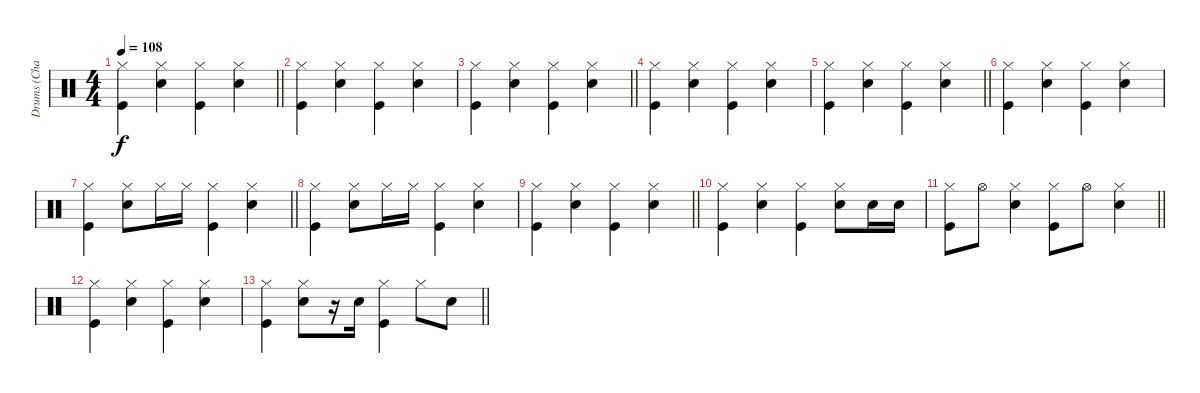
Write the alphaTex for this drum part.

\track ("Drums (Chad Smith)" "Drums (Cha") {instrument percussion}
\staff {score}
\articulation defaults
\ts (4 4)
\tempo 108
\clef neutral
\barLineRight lightlight
\ks c
("Hi-Hat (closed)" "Kick (hit)").4{dy f} ("Hi-Hat (closed)" "Snare (hit) 2").4 ("Hi-Hat (closed)" "Kick (hit)").4 ("Hi-Hat (closed)" "Snare (hit) 2").4 |
("Hi-Hat (closed)" "Kick (hit)").4 ("Hi-Hat (closed)" "Snare (hit) 2").4 ("Hi-Hat (closed)" "Kick (hit)").4 ("Hi-Hat (closed)" "Snare (hit) 2").4 |
\barLineRight lightlight
("Hi-Hat (closed)" "Kick (hit)").4 ("Hi-Hat (closed)" "Snare (hit) 2").4 ("Hi-Hat (closed)" "Kick (hit)").4 ("Hi-Hat (closed)" "Snare (hit) 2").4 |
("Hi-Hat (closed)" "Kick (hit)").4 ("Hi-Hat (closed)" "Snare (hit) 2").4 ("Hi-Hat (closed)" "Kick (hit)").4 ("Hi-Hat (closed)" "Snare (hit) 2").4 |
\barLineRight lightlight
("Hi-Hat (closed)" "Kick (hit)").4 ("Hi-Hat (closed)" "Snare (hit) 2").4 ("Hi-Hat (closed)" "Kick (hit)").4 ("Hi-Hat (closed)" "Snare (hit) 2").4 |
("Hi-Hat (closed)" "Kick (hit)").4 ("Hi-Hat (closed)" "Snare (hit) 2").4 ("Hi-Hat (closed)" "Kick (hit)").4 ("Hi-Hat (closed)" "Snare (hit) 2").4 |
\barLineRight lightlight
("Hi-Hat (closed)" "Kick (hit)").4 ("Hi-Hat (closed)" "Snare (hit) 2").8 "Hi-Hat (closed)".16 "Hi-Hat (closed)".16 ("Hi-Hat (closed)" "Kick (hit)").4 ("Hi-Hat (closed)" "Snare (hit) 2").4 |
("Hi-Hat (closed)" "Kick (hit)").4 ("Hi-Hat (closed)" "Snare (hit) 2").8 "Hi-Hat (closed)".16 "Hi-Hat (closed)".16 ("Hi-Hat (closed)" "Kick (hit)").4 ("Hi-Hat (closed)" "Snare (hit) 2").4 |
\barLineRight lightlight
("Hi-Hat (closed)" "Kick (hit)").4 ("Hi-Hat (closed)" "Snare (hit) 2").4 ("Hi-Hat (closed)" "Kick (hit)").4 ("Hi-Hat (closed)" "Snare (hit) 2").4 |
("Hi-Hat (closed)" "Kick (hit)").4 ("Hi-Hat (closed)" "Snare (hit) 2").4 ("Hi-Hat (closed)" "Kick (hit)").4 ("Hi-Hat (closed)" "Snare (hit) 2").8 "Snare (hit) 2".16 "Snare (hit) 2".16 |
\barLineRight lightlight
("Hi-Hat (closed)" "Kick (hit)").8 "Hi-Hat (open)".8 ("Hi-Hat (closed)" "Snare (hit) 2").4 ("Hi-Hat (closed)" "Kick (hit)").8 "Hi-Hat (open)".8 ("Hi-Hat (closed)" "Snare (hit) 2").4 |
("Hi-Hat (closed)" "Kick (hit)").4 ("Hi-Hat (closed)" "Snare (hit) 2").4 ("Hi-Hat (closed)" "Kick (hit)").4 ("Hi-Hat (closed)" "Snare (hit) 2").4 |
\barLineRight lightlight
("Hi-Hat (closed)" "Kick (hit)").4 ("Hi-Hat (closed)" "Snare (hit) 2").8 r.16 "Snare (hit) 2".16 ("Hi-Hat (closed)" "Kick (hit)").4 "Hi-Hat (closed)".8 "Snare (hit) 2".8
